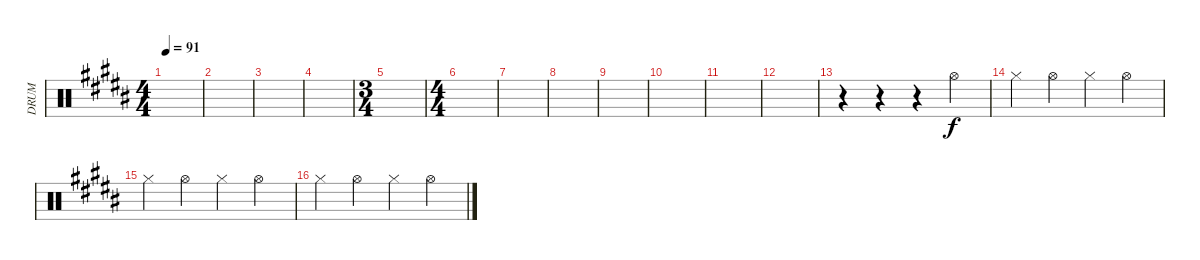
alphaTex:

\track ("DRUM" "DRUM") {instrument percussion}
\staff {score}
\articulation defaults
\ts (4 4)
\tempo 91
\clef neutral
\ks b
|
|
|
|
\ts (3 4)
|
\ts (4 4)
|
|
|
|
|
|
|
r.4 r.4 r.4 "Hi-Hat (open)".4 |
"Hi-Hat (closed)".4 "Hi-Hat (open)".4 "Hi-Hat (closed)".4 "Hi-Hat (open)".4 |
"Hi-Hat (closed)".4 "Hi-Hat (open)".4 "Hi-Hat (closed)".4 "Hi-Hat (open)".4 |
"Hi-Hat (closed)".4 "Hi-Hat (open)".4 "Hi-Hat (closed)".4 "Hi-Hat (open)".4
